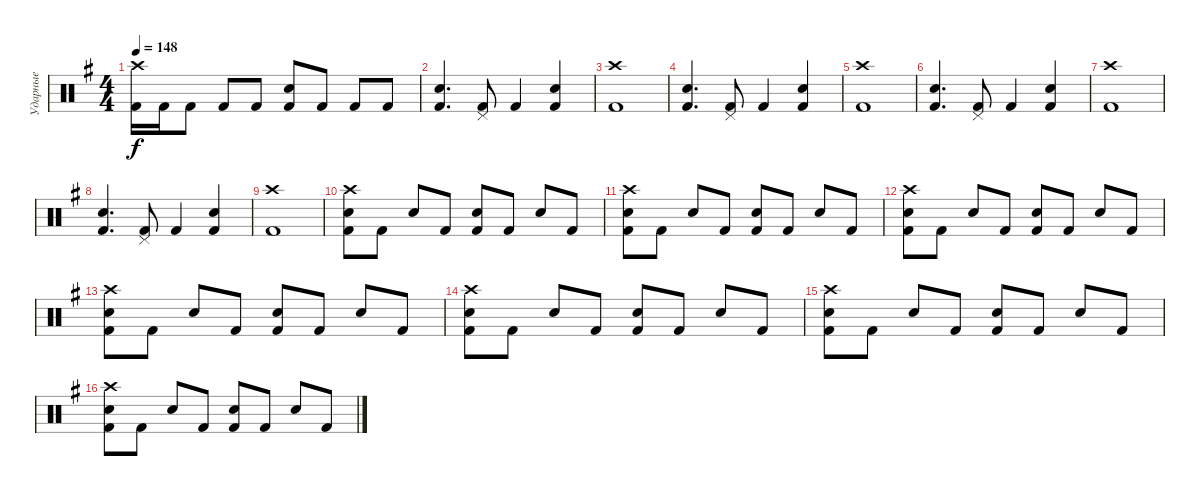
\track ("Ударные" "Ударные") {instrument percussion}
\staff {score}
\articulation defaults
\ts (4 4)
\tempo 148
\clef neutral
\ks g
("Crash high (hit)" "Kick (hit) 2").16{dy f} "Kick (hit) 2".16 "Kick (hit) 2".8 "Kick (hit) 2".8 "Kick (hit) 2".8 ("Snare (hit) 2" "Kick (hit) 2").8 "Kick (hit) 2".8 "Kick (hit) 2".8 "Kick (hit) 2".8 |
("Snare (hit) 2" "Kick (hit) 2").4{d} ("Pedal Hi-Hat (hit)" "Kick (hit) 2").8 "Kick (hit) 2".4 ("Snare (hit) 2" "Kick (hit) 2").4 |
("Crash high (hit)" "Kick (hit) 2").1 |
("Snare (hit) 2" "Kick (hit) 2").4{d} ("Pedal Hi-Hat (hit)" "Kick (hit) 2").8 "Kick (hit) 2".4 ("Snare (hit) 2" "Kick (hit) 2").4 |
("Crash high (hit)" "Kick (hit) 2").1 |
("Snare (hit) 2" "Kick (hit) 2").4{d} ("Pedal Hi-Hat (hit)" "Kick (hit) 2").8 "Kick (hit) 2".4 ("Snare (hit) 2" "Kick (hit) 2").4 |
("Crash high (hit)" "Kick (hit) 2").1 |
("Snare (hit) 2" "Kick (hit) 2").4{d} ("Pedal Hi-Hat (hit)" "Kick (hit) 2").8 "Kick (hit) 2".4 ("Snare (hit) 2" "Kick (hit) 2").4 |
("Crash high (hit)" "Kick (hit) 2").1 |
("Crash high (hit)" "Snare (hit) 2" "Kick (hit) 2").8 "Kick (hit) 2".8 "Snare (hit) 2".8 "Kick (hit) 2".8 ("Snare (hit) 2" "Kick (hit) 2").8 "Kick (hit) 2".8 "Snare (hit) 2".8 "Kick (hit) 2".8 |
("Crash high (hit)" "Snare (hit) 2" "Kick (hit) 2").8 "Kick (hit) 2".8 "Snare (hit) 2".8 "Kick (hit) 2".8 ("Snare (hit) 2" "Kick (hit) 2").8 "Kick (hit) 2".8 "Snare (hit) 2".8 "Kick (hit) 2".8 |
("Crash high (hit)" "Snare (hit) 2" "Kick (hit) 2").8 "Kick (hit) 2".8 "Snare (hit) 2".8 "Kick (hit) 2".8 ("Snare (hit) 2" "Kick (hit) 2").8 "Kick (hit) 2".8 "Snare (hit) 2".8 "Kick (hit) 2".8 |
("Crash high (hit)" "Snare (hit) 2" "Kick (hit) 2").8 "Kick (hit) 2".8 "Snare (hit) 2".8 "Kick (hit) 2".8 ("Snare (hit) 2" "Kick (hit) 2").8 "Kick (hit) 2".8 "Snare (hit) 2".8 "Kick (hit) 2".8 |
("Crash high (hit)" "Snare (hit) 2" "Kick (hit) 2").8 "Kick (hit) 2".8 "Snare (hit) 2".8 "Kick (hit) 2".8 ("Snare (hit) 2" "Kick (hit) 2").8 "Kick (hit) 2".8 "Snare (hit) 2".8 "Kick (hit) 2".8 |
("Crash high (hit)" "Snare (hit) 2" "Kick (hit) 2").8 "Kick (hit) 2".8 "Snare (hit) 2".8 "Kick (hit) 2".8 ("Snare (hit) 2" "Kick (hit) 2").8 "Kick (hit) 2".8 "Snare (hit) 2".8 "Kick (hit) 2".8 |
("Crash high (hit)" "Snare (hit) 2" "Kick (hit) 2").8 "Kick (hit) 2".8 "Snare (hit) 2".8 "Kick (hit) 2".8 ("Snare (hit) 2" "Kick (hit) 2").8 "Kick (hit) 2".8 "Snare (hit) 2".8 "Kick (hit) 2".8
